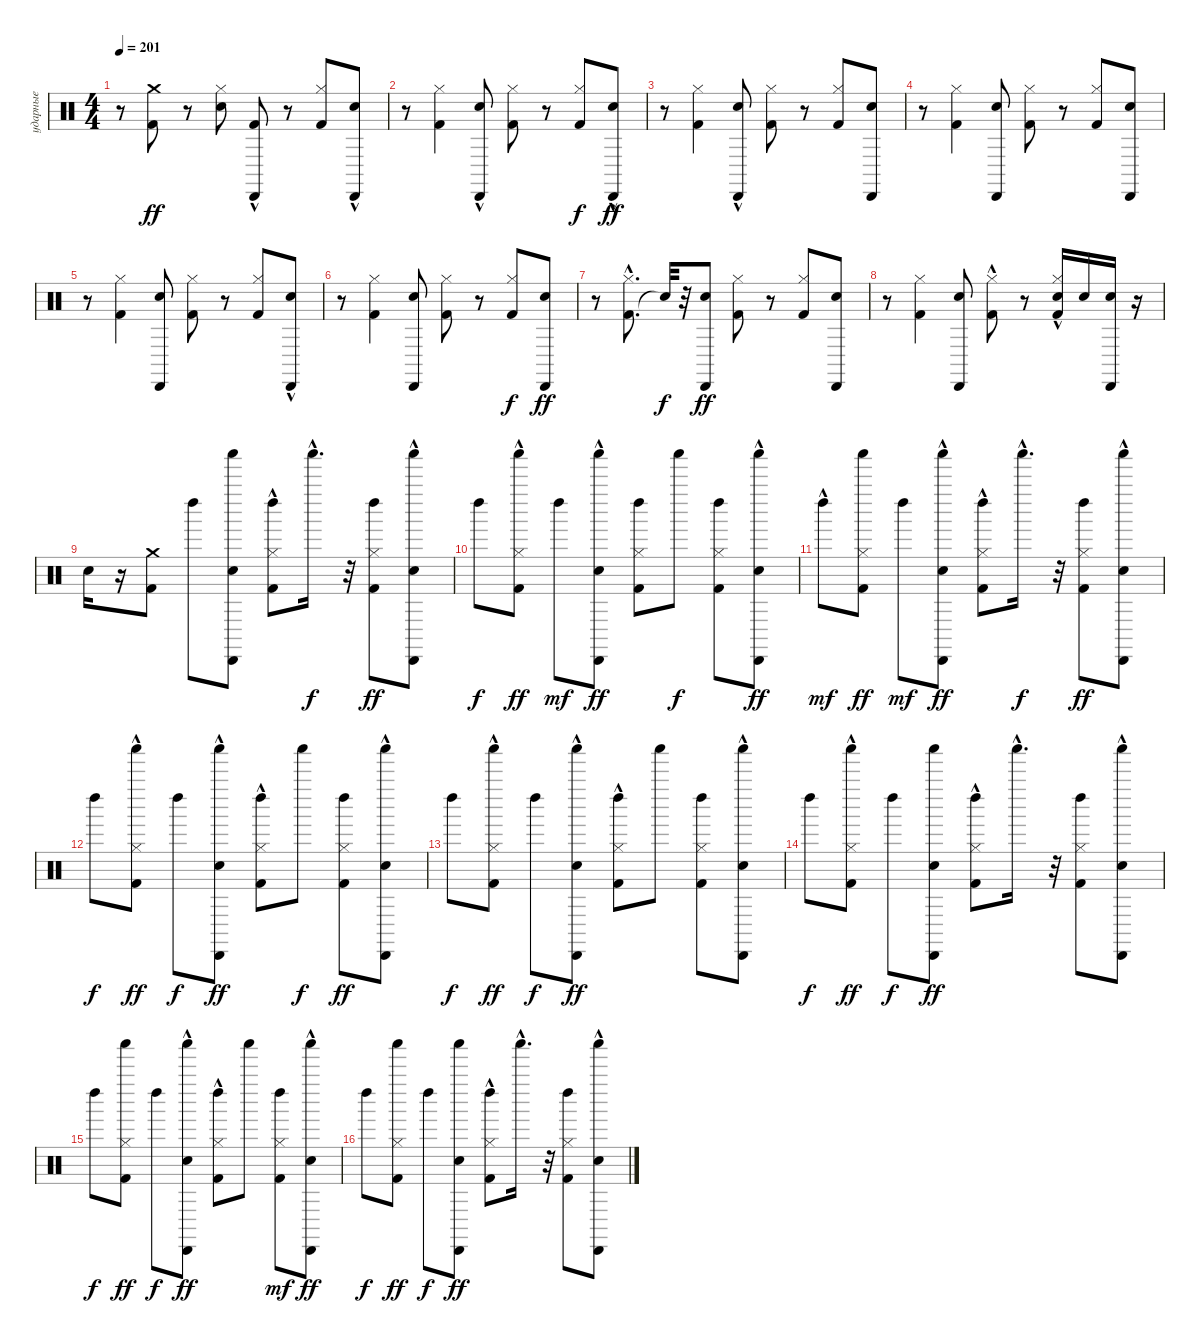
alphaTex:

\track ("ударные" "ударные") {instrument percussion}
\staff {score}
\articulation defaults
\ts (4 4)
\tempo 201
\clef neutral
\ks c
r.8{dy ff} ("Kick (hit) 2" "Crash medium (hit)").8 r.8 ("Electric Snare (hit)" "Hi-Hat (closed)").8 ("Kick (hit) 2" "Cabasa (hit)"{hac}).8 r.8 ("Kick (hit) 2" "Hi-Hat (closed)").8 ("Electric Snare (hit)" "Cabasa (hit)"{hac}).8 |
r.8 ("Kick (hit) 2" "Hi-Hat (closed)").4 ("Electric Snare (hit)" "Cabasa (hit)"{hac}).8 ("Kick (hit) 2" "Hi-Hat (closed)").8 r.8 ("Kick (hit) 2" "Hi-Hat (closed)").8{dy f} ("Electric Snare (hit)" "Cabasa (hit)"{hac}).8{dy ff} |
r.8 ("Kick (hit) 2" "Hi-Hat (closed)").4 ("Electric Snare (hit)" "Cabasa (hit)"{hac}).8 ("Kick (hit) 2" "Hi-Hat (closed)").8 r.8 ("Kick (hit) 2" "Hi-Hat (closed)").8 ("Electric Snare (hit)" "Cabasa (hit)").8 |
r.8 ("Kick (hit) 2" "Hi-Hat (closed)").4 ("Electric Snare (hit)" "Cabasa (hit)").8 ("Kick (hit) 2" "Hi-Hat (closed)").8 r.8 ("Kick (hit) 2" "Hi-Hat (closed)").8 ("Electric Snare (hit)" "Cabasa (hit)").8 |
r.8 ("Kick (hit) 2" "Hi-Hat (closed)").4 ("Electric Snare (hit)" "Cabasa (hit)").8 ("Kick (hit) 2" "Hi-Hat (closed)").8 r.8 ("Kick (hit) 2" "Hi-Hat (closed)").8 ("Electric Snare (hit)" "Cabasa (hit)"{hac}).8 |
r.8 ("Kick (hit) 2" "Hi-Hat (closed)").4 ("Electric Snare (hit)" "Cabasa (hit)").8 ("Kick (hit) 2" "Hi-Hat (closed)").8 r.8 ("Kick (hit) 2" "Hi-Hat (closed)").8{dy f} ("Electric Snare (hit)" "Cabasa (hit)").8{dy ff} |
r.8 ("Kick (hit) 2" "Hi-Hat (closed)"{hac}).8{d} "Snare (hit)"{t}.32{dy f} r.32 ("Electric Snare (hit)" "Cabasa (hit)").8{dy ff} ("Kick (hit) 2" "Hi-Hat (closed)").8 r.8 ("Kick (hit) 2" "Hi-Hat (closed)").8 ("Electric Snare (hit)" "Cabasa (hit)").8 |
r.8 ("Kick (hit) 2" "Hi-Hat (closed)").4 ("Electric Snare (hit)" "Cabasa (hit)").8 ("Kick (hit) 2" "Hi-Hat (closed)"{hac}).8 r.8 ("Kick (hit) 2" "Electric Snare (hit)" "Hi-Hat (closed)"{hac}).16 "Electric Snare (hit)".16 ("Electric Snare (hit)" "Cabasa (hit)").16 r.16 |
"Electric Snare (hit)".16 r.16 ("Kick (hit) 2" "Crash medium (hit)").8 "Left Maraca (hit)".8 ("Electric Snare (hit)" "Cabasa (hit)" "Shaker (hit)").8 ("Kick (hit) 2" "Hi-Hat (closed)"{hac} "Left Maraca (hit)").8 "Shaker (hit)"{hac}.16{d dy f} r.32 ("Kick (hit) 2" "Hi-Hat (closed)" "Left Maraca (hit)").8{dy ff} ("Electric Snare (hit)" "Cabasa (hit)" "Shaker (hit)"{hac}).8 |
"Left Maraca (hit)".8{dy f} ("Kick (hit) 2" "Hi-Hat (closed)" "Shaker (hit)"{hac}).8{dy ff} "Left Maraca (hit)".8{dy mf} ("Electric Snare (hit)" "Cabasa (hit)"{hac} "Shaker (hit)").8{dy ff} ("Kick (hit) 2" "Hi-Hat (closed)" "Left Maraca (hit)").8 "Shaker (hit)".8{dy f} ("Kick (hit) 2" "Hi-Hat (closed)" "Left Maraca (hit)").8 ("Electric Snare (hit)" "Cabasa (hit)"{hac} "Shaker (hit)").8{dy ff} |
"Left Maraca (hit)"{hac}.8{dy mf} ("Kick (hit) 2" "Hi-Hat (closed)" "Shaker (hit)").8{dy ff} "Left Maraca (hit)".8{dy mf} ("Electric Snare (hit)" "Cabasa (hit)" "Shaker (hit)"{hac}).8{dy ff} ("Kick (hit) 2" "Hi-Hat (closed)"{hac} "Left Maraca (hit)").8 "Shaker (hit)"{hac}.16{d dy f} r.32 ("Kick (hit) 2" "Hi-Hat (closed)" "Left Maraca (hit)").8{dy ff} ("Electric Snare (hit)" "Cabasa (hit)" "Shaker (hit)"{hac}).8 |
"Left Maraca (hit)".8{dy f} ("Kick (hit) 2" "Hi-Hat (closed)" "Shaker (hit)"{hac}).8{dy ff} "Left Maraca (hit)".8{dy f} ("Electric Snare (hit)" "Cabasa (hit)"{hac} "Shaker (hit)").8{dy ff} ("Kick (hit) 2" "Hi-Hat (closed)"{hac} "Left Maraca (hit)").8 "Shaker (hit)".8{dy f} ("Kick (hit) 2" "Hi-Hat (closed)" "Left Maraca (hit)").8{dy ff} ("Electric Snare (hit)" "Cabasa (hit)"{hac} "Shaker (hit)"{hac}).8 |
"Left Maraca (hit)".8{dy f} ("Kick (hit) 2" "Hi-Hat (closed)" "Shaker (hit)"{hac}).8{dy ff} "Left Maraca (hit)".8{dy f} ("Electric Snare (hit)" "Cabasa (hit)" "Shaker (hit)"{hac}).8{dy ff} ("Kick (hit) 2" "Hi-Hat (closed)"{hac} "Left Maraca (hit)").8 "Shaker (hit)".8 ("Kick (hit) 2" "Hi-Hat (closed)" "Left Maraca (hit)").8 ("Electric Snare (hit)" "Cabasa (hit)" "Shaker (hit)"{hac}).8 |
"Left Maraca (hit)".8{dy f} ("Kick (hit) 2" "Hi-Hat (closed)" "Shaker (hit)"{hac}).8{dy ff} "Left Maraca (hit)".8{dy f} ("Electric Snare (hit)" "Cabasa (hit)" "Shaker (hit)").8{dy ff} ("Kick (hit) 2" "Hi-Hat (closed)"{hac} "Left Maraca (hit)").8 "Shaker (hit)"{hac}.16{d} r.32 ("Kick (hit) 2" "Hi-Hat (closed)" "Left Maraca (hit)").8 ("Electric Snare (hit)" "Cabasa (hit)" "Shaker (hit)"{hac}).8 |
"Left Maraca (hit)".8{dy f} ("Kick (hit) 2" "Hi-Hat (closed)" "Shaker (hit)").8{dy ff} "Left Maraca (hit)".8{dy f} ("Electric Snare (hit)" "Cabasa (hit)"{hac} "Shaker (hit)").8{dy ff} ("Kick (hit) 2" "Hi-Hat (closed)"{hac} "Left Maraca (hit)").8 "Shaker (hit)".8 ("Kick (hit) 2" "Hi-Hat (closed)" "Left Maraca (hit)").8{dy mf} ("Electric Snare (hit)" "Cabasa (hit)"{hac} "Shaker (hit)").8{dy ff} |
"Left Maraca (hit)".8{dy f} ("Kick (hit) 2" "Hi-Hat (closed)" "Shaker (hit)").8{dy ff} "Left Maraca (hit)".8{dy f} ("Electric Snare (hit)" "Cabasa (hit)" "Shaker (hit)").8{dy ff} ("Kick (hit) 2" "Hi-Hat (closed)"{hac} "Left Maraca (hit)").8 "Shaker (hit)"{hac}.16{d} r.32 ("Kick (hit) 2" "Hi-Hat (closed)" "Left Maraca (hit)").8 ("Electric Snare (hit)" "Cabasa (hit)" "Shaker (hit)"{hac}).8
